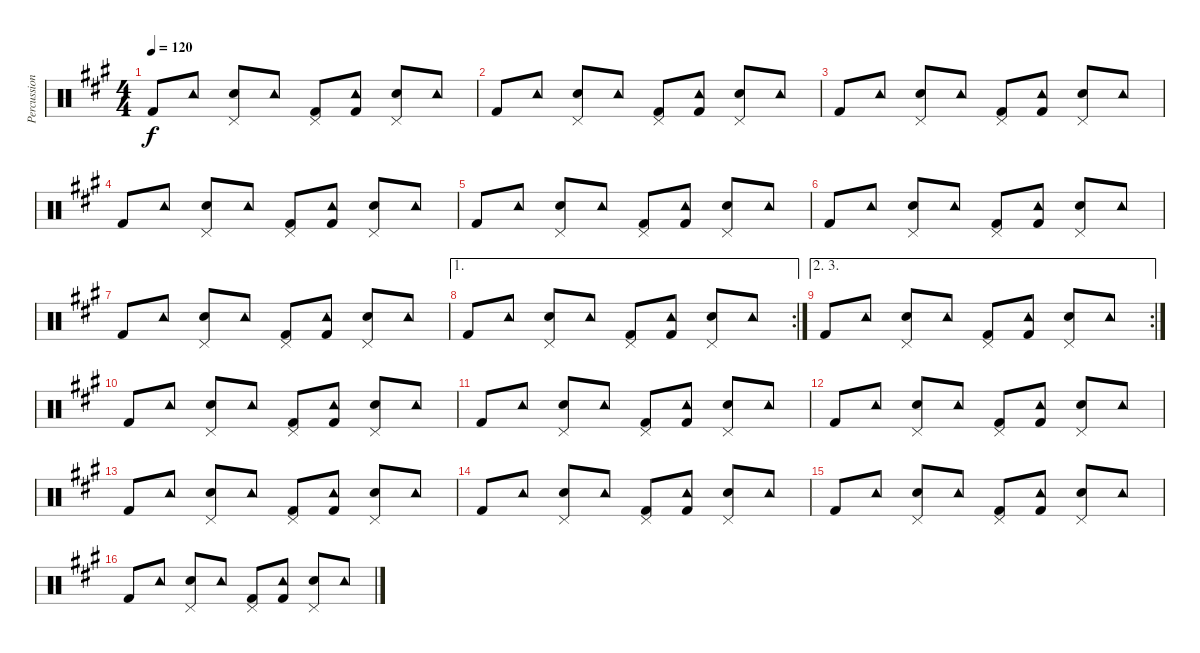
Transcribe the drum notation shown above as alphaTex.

\track ("Percussion" "Percussion") {instrument percussion}
\staff {score}
\articulation defaults
\ts (4 4)
\tempo 120
\clef neutral
\ks a "Kick (hit) 2".8{dy f} "Tambourine (hit)".8
("Pedal Hi-Hat (hit)" "Snare (hit) 2").8 "Tambourine (hit)".8 ("Pedal Hi-Hat (hit)" "Kick (hit) 2").8 ("Tambourine (hit)" "Kick (hit) 2").8 ("Pedal Hi-Hat (hit)" "Snare (hit) 2").8 "Tambourine (hit)".8 |
"Kick (hit) 2".8 "Tambourine (hit)".8 ("Pedal Hi-Hat (hit)" "Snare (hit) 2").8 "Tambourine (hit)".8 ("Pedal Hi-Hat (hit)" "Kick (hit) 2").8 ("Tambourine (hit)" "Kick (hit) 2").8 ("Pedal Hi-Hat (hit)" "Snare (hit) 2").8 "Tambourine (hit)".8 |
"Kick (hit) 2".8 "Tambourine (hit)".8 ("Pedal Hi-Hat (hit)" "Snare (hit) 2").8 "Tambourine (hit)".8 ("Pedal Hi-Hat (hit)" "Kick (hit) 2").8 ("Tambourine (hit)" "Kick (hit) 2").8 ("Pedal Hi-Hat (hit)" "Snare (hit) 2").8 "Tambourine (hit)".8 |
"Kick (hit) 2".8 "Tambourine (hit)".8 ("Pedal Hi-Hat (hit)" "Snare (hit) 2").8 "Tambourine (hit)".8 ("Pedal Hi-Hat (hit)" "Kick (hit) 2").8 ("Tambourine (hit)" "Kick (hit) 2").8 ("Pedal Hi-Hat (hit)" "Snare (hit) 2").8 "Tambourine (hit)".8 |
"Kick (hit) 2".8 "Tambourine (hit)".8 ("Pedal Hi-Hat (hit)" "Snare (hit) 2").8 "Tambourine (hit)".8 ("Pedal Hi-Hat (hit)" "Kick (hit) 2").8 ("Tambourine (hit)" "Kick (hit) 2").8 ("Pedal Hi-Hat (hit)" "Snare (hit) 2").8 "Tambourine (hit)".8 |
"Kick (hit) 2".8 "Tambourine (hit)".8 ("Pedal Hi-Hat (hit)" "Snare (hit) 2").8 "Tambourine (hit)".8 ("Pedal Hi-Hat (hit)" "Kick (hit) 2").8 ("Tambourine (hit)" "Kick (hit) 2").8 ("Pedal Hi-Hat (hit)" "Snare (hit) 2").8 "Tambourine (hit)".8 |
"Kick (hit) 2".8 "Tambourine (hit)".8 ("Pedal Hi-Hat (hit)" "Snare (hit) 2").8 "Tambourine (hit)".8 ("Pedal Hi-Hat (hit)" "Kick (hit) 2").8 ("Tambourine (hit)" "Kick (hit) 2").8 ("Pedal Hi-Hat (hit)" "Snare (hit) 2").8 "Tambourine (hit)".8 |
\ae 1
\rc 2 "Kick (hit) 2".8 "Tambourine (hit)".8
("Pedal Hi-Hat (hit)" "Snare (hit) 2").8 "Tambourine (hit)".8 ("Pedal Hi-Hat (hit)" "Kick (hit) 2").8 ("Tambourine (hit)" "Kick (hit) 2").8 ("Pedal Hi-Hat (hit)" "Snare (hit) 2").8 "Tambourine (hit)".8 |
\ae (2 3)
\rc 2 "Kick (hit) 2".8 "Tambourine (hit)".8
("Pedal Hi-Hat (hit)" "Snare (hit) 2").8 "Tambourine (hit)".8 ("Pedal Hi-Hat (hit)" "Kick (hit) 2").8 ("Tambourine (hit)" "Kick (hit) 2").8 ("Pedal Hi-Hat (hit)" "Snare (hit) 2").8 "Tambourine (hit)".8 |
"Kick (hit) 2".8 "Tambourine (hit)".8 ("Pedal Hi-Hat (hit)" "Snare (hit) 2").8 "Tambourine (hit)".8 ("Pedal Hi-Hat (hit)" "Kick (hit) 2").8 ("Tambourine (hit)" "Kick (hit) 2").8 ("Pedal Hi-Hat (hit)" "Snare (hit) 2").8 "Tambourine (hit)".8 |
"Kick (hit) 2".8 "Tambourine (hit)".8 ("Pedal Hi-Hat (hit)" "Snare (hit) 2").8 "Tambourine (hit)".8 ("Pedal Hi-Hat (hit)" "Kick (hit) 2").8 ("Tambourine (hit)" "Kick (hit) 2").8 ("Pedal Hi-Hat (hit)" "Snare (hit) 2").8 "Tambourine (hit)".8 |
"Kick (hit) 2".8 "Tambourine (hit)".8 ("Pedal Hi-Hat (hit)" "Snare (hit) 2").8 "Tambourine (hit)".8 ("Pedal Hi-Hat (hit)" "Kick (hit) 2").8 ("Tambourine (hit)" "Kick (hit) 2").8 ("Pedal Hi-Hat (hit)" "Snare (hit) 2").8 "Tambourine (hit)".8 |
"Kick (hit) 2".8 "Tambourine (hit)".8 ("Pedal Hi-Hat (hit)" "Snare (hit) 2").8 "Tambourine (hit)".8 ("Pedal Hi-Hat (hit)" "Kick (hit) 2").8 ("Tambourine (hit)" "Kick (hit) 2").8 ("Pedal Hi-Hat (hit)" "Snare (hit) 2").8 "Tambourine (hit)".8 |
"Kick (hit) 2".8 "Tambourine (hit)".8 ("Pedal Hi-Hat (hit)" "Snare (hit) 2").8 "Tambourine (hit)".8 ("Pedal Hi-Hat (hit)" "Kick (hit) 2").8 ("Tambourine (hit)" "Kick (hit) 2").8 ("Pedal Hi-Hat (hit)" "Snare (hit) 2").8 "Tambourine (hit)".8 |
"Kick (hit) 2".8 "Tambourine (hit)".8 ("Pedal Hi-Hat (hit)" "Snare (hit) 2").8 "Tambourine (hit)".8 ("Pedal Hi-Hat (hit)" "Kick (hit) 2").8 ("Tambourine (hit)" "Kick (hit) 2").8 ("Pedal Hi-Hat (hit)" "Snare (hit) 2").8 "Tambourine (hit)".8 |
"Kick (hit) 2".8 "Tambourine (hit)".8 ("Pedal Hi-Hat (hit)" "Snare (hit) 2").8 "Tambourine (hit)".8 ("Pedal Hi-Hat (hit)" "Kick (hit) 2").8 ("Tambourine (hit)" "Kick (hit) 2").8 ("Pedal Hi-Hat (hit)" "Snare (hit) 2").8 "Tambourine (hit)".8
